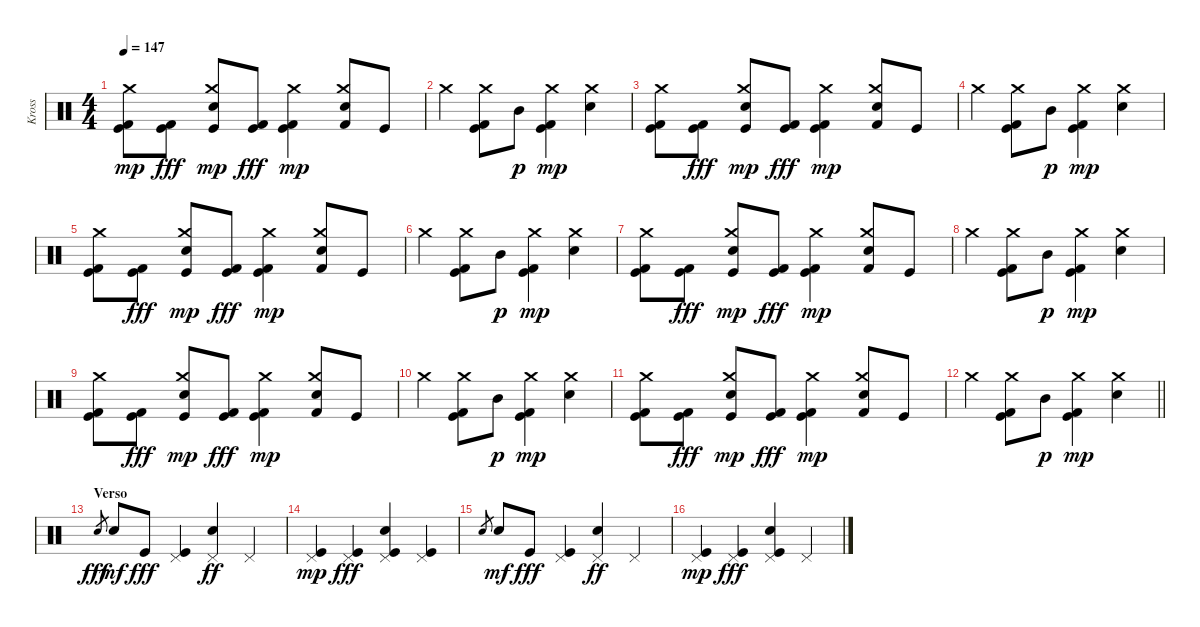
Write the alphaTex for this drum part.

\track ("Kross" "Kross") {instrument percussion}
\staff {score}
\articulation defaults
\ts (4 4)
\tempo 147
\clef neutral
\ks c
("Kick (hit) 2" "Kick (hit)" "Crash medium (hit)").8{dy mp} ("Kick (hit) 2" "Kick (hit)").8{dy fff} ("Snare (hit) 2" "Kick (hit)" "Crash medium (hit)").8{dy mp} ("Kick (hit) 2" "Kick (hit)").8{dy fff} ("Kick (hit) 2" "Kick (hit)" "Crash medium (hit)").4{dy mp} ("Snare (hit) 2" "Kick (hit) 2" "Crash medium (hit)").8 "Kick (hit)".8 |
"Crash medium (hit)".4 ("Kick (hit) 2" "Kick (hit)" "Crash medium (hit)").8 "Mid Tom (hit)".8{dy p} ("Kick (hit) 2" "Kick (hit)" "Crash medium (hit)").4{dy mp} ("Snare (hit) 2" "Crash medium (hit)").4 |
("Kick (hit) 2" "Kick (hit)" "Crash medium (hit)").8 ("Kick (hit) 2" "Kick (hit)").8{dy fff} ("Snare (hit) 2" "Kick (hit)" "Crash medium (hit)").8{dy mp} ("Kick (hit) 2" "Kick (hit)").8{dy fff} ("Kick (hit) 2" "Kick (hit)" "Crash medium (hit)").4{dy mp} ("Snare (hit) 2" "Kick (hit) 2" "Crash medium (hit)").8 "Kick (hit)".8 |
"Crash medium (hit)".4 ("Kick (hit) 2" "Kick (hit)" "Crash medium (hit)").8 "Mid Tom (hit)".8{dy p} ("Kick (hit) 2" "Kick (hit)" "Crash medium (hit)").4{dy mp} ("Snare (hit) 2" "Crash medium (hit)").4 |
("Kick (hit) 2" "Kick (hit)" "Crash medium (hit)").8 ("Kick (hit) 2" "Kick (hit)").8{dy fff} ("Snare (hit) 2" "Kick (hit)" "Crash medium (hit)").8{dy mp} ("Kick (hit) 2" "Kick (hit)").8{dy fff} ("Kick (hit) 2" "Kick (hit)" "Crash medium (hit)").4{dy mp} ("Snare (hit) 2" "Kick (hit) 2" "Crash medium (hit)").8 "Kick (hit)".8 |
"Crash medium (hit)".4 ("Kick (hit) 2" "Kick (hit)" "Crash medium (hit)").8 "Mid Tom (hit)".8{dy p} ("Kick (hit) 2" "Kick (hit)" "Crash medium (hit)").4{dy mp} ("Snare (hit) 2" "Crash medium (hit)").4 |
("Kick (hit) 2" "Kick (hit)" "Crash medium (hit)").8 ("Kick (hit) 2" "Kick (hit)").8{dy fff} ("Snare (hit) 2" "Kick (hit)" "Crash medium (hit)").8{dy mp} ("Kick (hit) 2" "Kick (hit)").8{dy fff} ("Kick (hit) 2" "Kick (hit)" "Crash medium (hit)").4{dy mp} ("Snare (hit) 2" "Kick (hit) 2" "Crash medium (hit)").8 "Kick (hit)".8 |
"Crash medium (hit)".4 ("Kick (hit) 2" "Kick (hit)" "Crash medium (hit)").8 "Mid Tom (hit)".8{dy p} ("Kick (hit) 2" "Kick (hit)" "Crash medium (hit)").4{dy mp} ("Snare (hit) 2" "Crash medium (hit)").4 |
("Kick (hit) 2" "Kick (hit)" "Crash medium (hit)").8 ("Kick (hit) 2" "Kick (hit)").8{dy fff} ("Snare (hit) 2" "Kick (hit)" "Crash medium (hit)").8{dy mp} ("Kick (hit) 2" "Kick (hit)").8{dy fff} ("Kick (hit) 2" "Kick (hit)" "Crash medium (hit)").4{dy mp} ("Snare (hit) 2" "Kick (hit) 2" "Crash medium (hit)").8 "Kick (hit)".8 |
"Crash medium (hit)".4 ("Kick (hit) 2" "Kick (hit)" "Crash medium (hit)").8 "Mid Tom (hit)".8{dy p} ("Kick (hit) 2" "Kick (hit)" "Crash medium (hit)").4{dy mp} ("Snare (hit) 2" "Crash medium (hit)").4 |
("Kick (hit) 2" "Kick (hit)" "Crash medium (hit)").8 ("Kick (hit) 2" "Kick (hit)").8{dy fff} ("Snare (hit) 2" "Kick (hit)" "Crash medium (hit)").8{dy mp} ("Kick (hit) 2" "Kick (hit)").8{dy fff} ("Kick (hit) 2" "Kick (hit)" "Crash medium (hit)").4{dy mp} ("Snare (hit) 2" "Kick (hit) 2" "Crash medium (hit)").8 "Kick (hit)".8 |
\barLineRight lightlight "Crash medium (hit)".4
("Kick (hit) 2" "Kick (hit)" "Crash medium (hit)").8 "Mid Tom (hit)".8{dy p} ("Kick (hit) 2" "Kick (hit)" "Crash medium (hit)").4{dy mp} ("Snare (hit) 2" "Crash medium (hit)").4 |
\section ("" "Verso")
"Electric Snare (hit)".8{gr dy fff} "Electric Snare (hit)".8{dy mf} "Kick (hit)".8{dy fff} ("Pedal Hi-Hat (hit)" "Kick (hit)").4 ("Snare (hit) 2" "Pedal Hi-Hat (hit)").4{dy ff} "Pedal Hi-Hat (hit)".4 |
("Kick (hit)" "Pedal Hi-Hat (hit)").4{dy mp} ("Kick (hit)" "Pedal Hi-Hat (hit)").4{dy fff} ("Kick (hit)" "Snare (hit) 2" "Pedal Hi-Hat (hit)").4 ("Pedal Hi-Hat (hit)" "Kick (hit)").4 |
"Electric Snare (hit)".8{gr} "Electric Snare (hit)".8{dy mf} "Kick (hit)".8{dy fff} ("Pedal Hi-Hat (hit)" "Kick (hit)").4 ("Snare (hit) 2" "Pedal Hi-Hat (hit)").4{dy ff} "Pedal Hi-Hat (hit)".4 |
("Kick (hit)" "Pedal Hi-Hat (hit)").4{dy mp} ("Kick (hit)" "Pedal Hi-Hat (hit)").4{dy fff} ("Kick (hit)" "Snare (hit) 2" "Pedal Hi-Hat (hit)").4 "Pedal Hi-Hat (hit)".4
